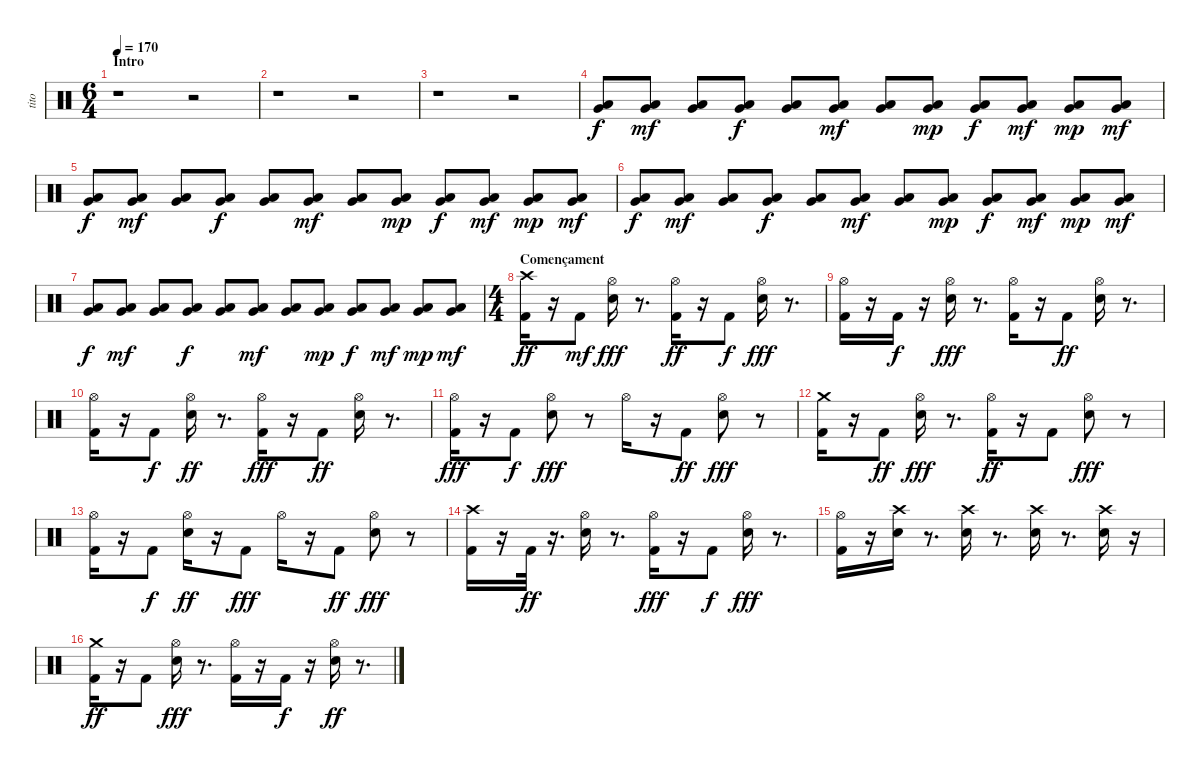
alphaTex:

\track ("tito" "tito") {instrument percussion}
\staff {score}
\articulation defaults
\ts (6 4)
\section ("" "Intro")
\tempo 170
\clef neutral
\ks c
r.1{dy f} r.2 |
r.1 r.2 |
r.1 r.2 |
("Very Low Tom (hit)" "Low Floor Tom (hit)").8 ("Low Floor Tom (hit)" "Very Low Tom (hit)").8{dy mf} ("Low Floor Tom (hit)" "Very Low Tom (hit)").8 ("Very Low Tom (hit)" "Low Floor Tom (hit)").8{dy f} ("Very Low Tom (hit)" "Low Floor Tom (hit)").8 ("Very Low Tom (hit)" "Low Floor Tom (hit)").8{dy mf} ("Very Low Tom (hit)" "Low Floor Tom (hit)").8 ("Very Low Tom (hit)" "Low Floor Tom (hit)").8{dy mp} ("Very Low Tom (hit)" "Low Floor Tom (hit)").8{dy f} ("Low Floor Tom (hit)" "Very Low Tom (hit)").8{dy mf} ("Low Floor Tom (hit)" "Very Low Tom (hit)").8{dy mp} ("Low Floor Tom (hit)" "Very Low Tom (hit)").8{dy mf} |
("Very Low Tom (hit)" "Low Floor Tom (hit)").8{dy f} ("Low Floor Tom (hit)" "Very Low Tom (hit)").8{dy mf} ("Low Floor Tom (hit)" "Very Low Tom (hit)").8 ("Very Low Tom (hit)" "Low Floor Tom (hit)").8{dy f} ("Very Low Tom (hit)" "Low Floor Tom (hit)").8 ("Very Low Tom (hit)" "Low Floor Tom (hit)").8{dy mf} ("Very Low Tom (hit)" "Low Floor Tom (hit)").8 ("Very Low Tom (hit)" "Low Floor Tom (hit)").8{dy mp} ("Very Low Tom (hit)" "Low Floor Tom (hit)").8{dy f} ("Low Floor Tom (hit)" "Very Low Tom (hit)").8{dy mf} ("Low Floor Tom (hit)" "Very Low Tom (hit)").8{dy mp} ("Low Floor Tom (hit)" "Very Low Tom (hit)").8{dy mf} |
("Very Low Tom (hit)" "Low Floor Tom (hit)").8{dy f} ("Low Floor Tom (hit)" "Very Low Tom (hit)").8{dy mf} ("Low Floor Tom (hit)" "Very Low Tom (hit)").8 ("Very Low Tom (hit)" "Low Floor Tom (hit)").8{dy f} ("Very Low Tom (hit)" "Low Floor Tom (hit)").8 ("Very Low Tom (hit)" "Low Floor Tom (hit)").8{dy mf} ("Very Low Tom (hit)" "Low Floor Tom (hit)").8 ("Very Low Tom (hit)" "Low Floor Tom (hit)").8{dy mp} ("Very Low Tom (hit)" "Low Floor Tom (hit)").8{dy f} ("Low Floor Tom (hit)" "Very Low Tom (hit)").8{dy mf} ("Low Floor Tom (hit)" "Very Low Tom (hit)").8{dy mp} ("Low Floor Tom (hit)" "Very Low Tom (hit)").8{dy mf} |
("Very Low Tom (hit)" "Low Floor Tom (hit)").8{dy f} ("Low Floor Tom (hit)" "Very Low Tom (hit)").8{dy mf} ("Low Floor Tom (hit)" "Very Low Tom (hit)").8 ("Very Low Tom (hit)" "Low Floor Tom (hit)").8{dy f} ("Very Low Tom (hit)" "Low Floor Tom (hit)").8 ("Very Low Tom (hit)" "Low Floor Tom (hit)").8{dy mf} ("Very Low Tom (hit)" "Low Floor Tom (hit)").8 ("Very Low Tom (hit)" "Low Floor Tom (hit)").8{dy mp} ("Very Low Tom (hit)" "Low Floor Tom (hit)").8{dy f} ("Low Floor Tom (hit)" "Very Low Tom (hit)").8{dy mf} ("Low Floor Tom (hit)" "Very Low Tom (hit)").8{dy mp} ("Low Floor Tom (hit)" "Very Low Tom (hit)").8{dy mf} |
\ts (4 4)
\section ("" "Començament")
("Crash high (hit)" "Kick (hit) 2").16{dy ff volume 16} r.16 "Kick (hit) 2".8{dy mf} ("Snare (hit) 2" "Hi-Hat (open)").16{dy fff} r.8{d} ("Hi-Hat (open)" "Kick (hit) 2").16{dy ff} r.16 "Kick (hit) 2".8{dy f} ("Snare (hit) 2" "Hi-Hat (open)").16{dy fff} r.8{d} |
("Kick (hit) 2" "Hi-Hat (open)").16 r.16 "Kick (hit) 2".16{dy f} r.16 ("Snare (hit) 2" "Hi-Hat (open)").16{dy fff} r.8{d} ("Kick (hit) 2" "Hi-Hat (open)").16 r.16 "Kick (hit) 2".8{dy ff} ("Hi-Hat (open)" "Snare (hit) 2").16 r.8{d} |
("Hi-Hat (open)" "Kick (hit) 2").16 r.16 "Kick (hit) 2".8{dy f} ("Hi-Hat (open)" "Snare (hit) 2").16{dy ff} r.8{d} ("Kick (hit) 2" "Hi-Hat (open)").16{dy fff} r.16 "Kick (hit) 2".8{dy ff} ("Hi-Hat (open)" "Snare (hit) 2").16 r.8{d} |
("Kick (hit) 2" "Hi-Hat (open)").16{dy fff} r.16 "Kick (hit) 2".8{dy f} ("Snare (hit) 2" "Hi-Hat (open)").8{dy fff} r.8 "Hi-Hat (open)".16 r.16 "Kick (hit) 2".8{dy ff} ("Hi-Hat (open)" "Snare (hit) 2").8{dy fff} r.8 |
("Crash medium (hit)" "Kick (hit) 2").16 r.16 "Kick (hit) 2".8{dy ff} ("Snare (hit) 2" "Hi-Hat (open)").16{dy fff} r.8{d} ("Hi-Hat (open)" "Kick (hit) 2").16{dy ff} r.16 "Kick (hit) 2".8 ("Snare (hit) 2" "Hi-Hat (open)").8{dy fff} r.8 |
("Kick (hit) 2" "Hi-Hat (open)").16 r.16 "Kick (hit) 2".8{dy f} ("Hi-Hat (open)" "Snare (hit) 2").16{dy ff} r.16 "Kick (hit) 2".8{dy fff} "Hi-Hat (open)".16 r.16 "Kick (hit) 2".8{dy ff} ("Snare (hit) 2" "Hi-Hat (open)").8{dy fff} r.8 |
("Crash high (hit)" "Kick (hit) 2").16 r.16 "Kick (hit) 2".32{dy ff} r.16{d} ("Hi-Hat (open)" "Snare (hit) 2").16 r.8{d} ("Kick (hit) 2" "Hi-Hat (open)").16{dy fff} r.16 "Kick (hit) 2".8{dy f} ("Snare (hit) 2" "Hi-Hat (open)").16{dy fff} r.8{d} |
("Kick (hit) 2" "Hi-Hat (open)").16 r.16 ("Snare (hit) 2" "Crash high (hit)").16 r.8{d} ("Snare (hit) 2" "Crash high (hit)").16 r.8{d} ("Crash high (hit)" "Snare (hit) 2").16 r.8{d} ("Crash high (hit)" "Snare (hit) 2").16 r.16 |
("Kick (hit) 2" "Crash medium (hit)").16{dy ff} r.16 "Kick (hit) 2".8 ("Hi-Hat (open)" "Snare (hit) 2").16{dy fff} r.8{d} ("Kick (hit) 2" "Hi-Hat (open)").16 r.16 "Kick (hit) 2".16{dy f} r.16 ("Hi-Hat (open)" "Snare (hit) 2").16{dy ff} r.8{d}
